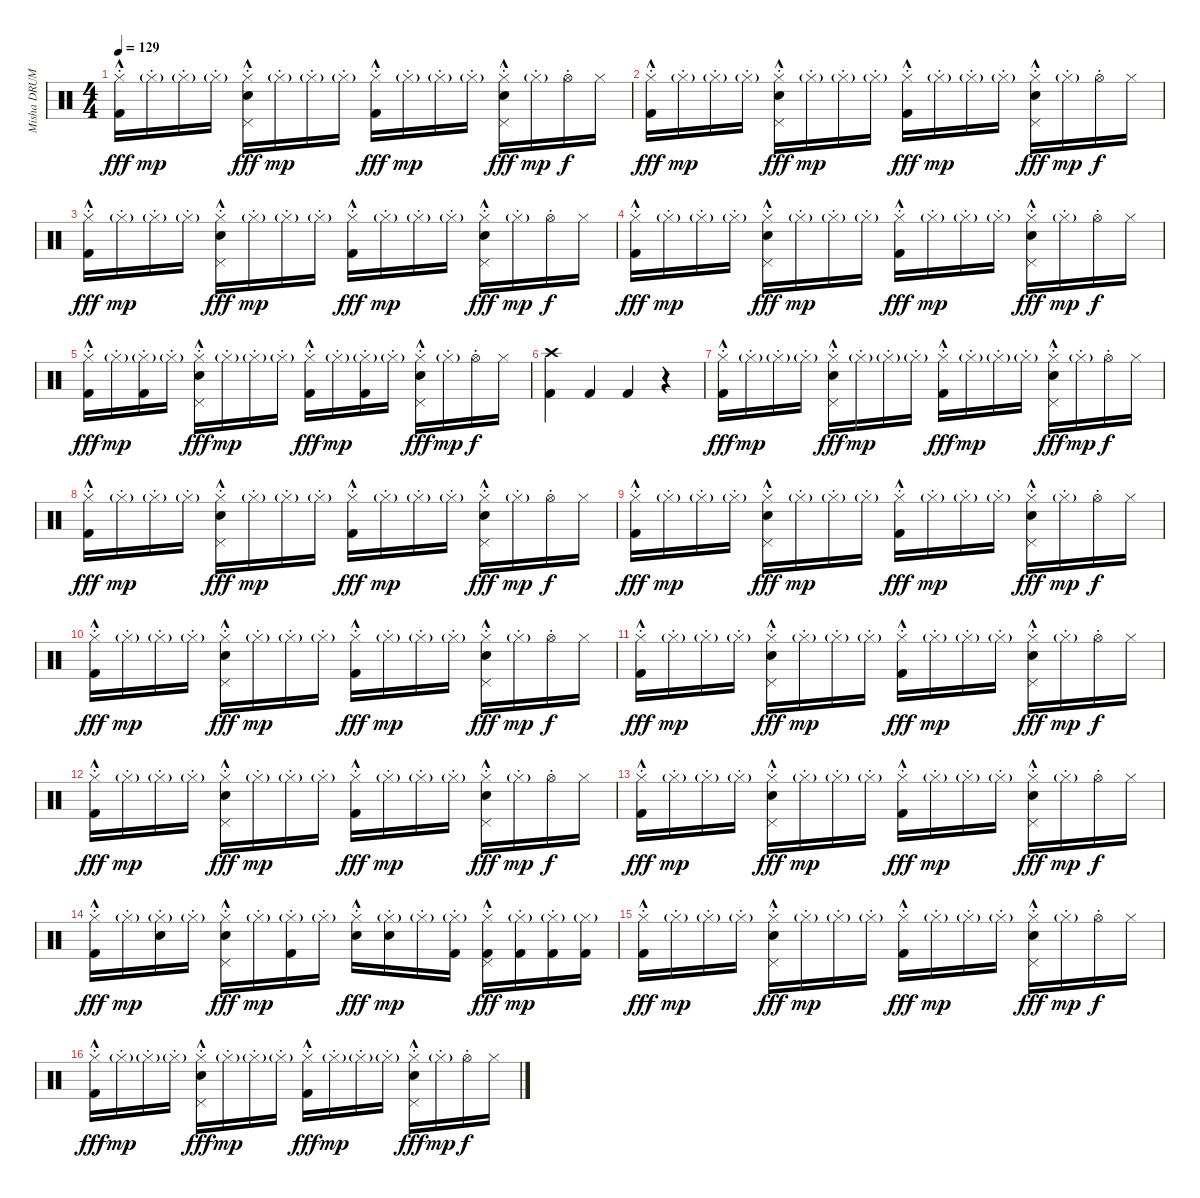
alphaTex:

\track ("Misha DRUMS" "Misha DRUM") {instrument percussion}
\staff {score}
\articulation defaults
\ts (4 4)
\tempo 129
\clef neutral
\ks c
("Hi-Hat (closed)"{hac st} "Kick (hit) 2").16{dy fff} "Hi-Hat (closed)"{g st}.16{dy mp} "Hi-Hat (closed)"{g st}.16 "Hi-Hat (closed)"{g st}.16 ("Hi-Hat (closed)"{hac st} "Pedal Hi-Hat (hit)" "Snare (hit) 2").16{dy fff} "Hi-Hat (closed)"{g st}.16{dy mp} "Hi-Hat (closed)"{g st}.16 "Hi-Hat (closed)"{g st}.16 ("Hi-Hat (closed)"{hac st} "Kick (hit) 2").16{dy fff} "Hi-Hat (closed)"{g st}.16{dy mp} "Hi-Hat (closed)"{g st}.16 "Hi-Hat (closed)"{g st}.16 ("Hi-Hat (closed)"{hac st} "Pedal Hi-Hat (hit)" "Snare (hit) 2").16{dy fff} "Hi-Hat (closed)"{g st}.16{dy mp} "Hi-Hat (open)"{st}.16{dy f} "Hi-Hat (closed)".16 |
("Hi-Hat (closed)"{hac st} "Kick (hit) 2").16{dy fff} "Hi-Hat (closed)"{g st}.16{dy mp} "Hi-Hat (closed)"{g st}.16 "Hi-Hat (closed)"{g st}.16 ("Hi-Hat (closed)"{hac st} "Pedal Hi-Hat (hit)" "Snare (hit) 2").16{dy fff} "Hi-Hat (closed)"{g st}.16{dy mp} "Hi-Hat (closed)"{g st}.16 "Hi-Hat (closed)"{g st}.16 ("Hi-Hat (closed)"{hac st} "Kick (hit) 2").16{dy fff} "Hi-Hat (closed)"{g st}.16{dy mp} "Hi-Hat (closed)"{g st}.16 "Hi-Hat (closed)"{g st}.16 ("Hi-Hat (closed)"{hac st} "Pedal Hi-Hat (hit)" "Snare (hit) 2").16{dy fff} "Hi-Hat (closed)"{g st}.16{dy mp} "Hi-Hat (open)"{st}.16{dy f} "Hi-Hat (closed)".16 |
("Hi-Hat (closed)"{hac st} "Kick (hit) 2").16{dy fff} "Hi-Hat (closed)"{g st}.16{dy mp} "Hi-Hat (closed)"{g st}.16 "Hi-Hat (closed)"{g st}.16 ("Hi-Hat (closed)"{hac st} "Pedal Hi-Hat (hit)" "Snare (hit) 2").16{dy fff} "Hi-Hat (closed)"{g st}.16{dy mp} "Hi-Hat (closed)"{g st}.16 "Hi-Hat (closed)"{g st}.16 ("Hi-Hat (closed)"{hac st} "Kick (hit) 2").16{dy fff} "Hi-Hat (closed)"{g st}.16{dy mp} "Hi-Hat (closed)"{g st}.16 "Hi-Hat (closed)"{g st}.16 ("Hi-Hat (closed)"{hac st} "Pedal Hi-Hat (hit)" "Snare (hit) 2").16{dy fff} "Hi-Hat (closed)"{g st}.16{dy mp} "Hi-Hat (open)"{st}.16{dy f} "Hi-Hat (closed)".16 |
("Hi-Hat (closed)"{hac st} "Kick (hit) 2").16{dy fff} "Hi-Hat (closed)"{g st}.16{dy mp} "Hi-Hat (closed)"{g st}.16 "Hi-Hat (closed)"{g st}.16 ("Hi-Hat (closed)"{hac st} "Pedal Hi-Hat (hit)" "Snare (hit) 2").16{dy fff} "Hi-Hat (closed)"{g st}.16{dy mp} "Hi-Hat (closed)"{g st}.16 "Hi-Hat (closed)"{g st}.16 ("Hi-Hat (closed)"{hac st} "Kick (hit) 2").16{dy fff} "Hi-Hat (closed)"{g st}.16{dy mp} "Hi-Hat (closed)"{g st}.16 "Hi-Hat (closed)"{g st}.16 ("Hi-Hat (closed)"{hac st} "Pedal Hi-Hat (hit)" "Snare (hit) 2").16{dy fff} "Hi-Hat (closed)"{g st}.16{dy mp} "Hi-Hat (open)"{st}.16{dy f} "Hi-Hat (closed)".16 |
("Hi-Hat (closed)"{hac st} "Kick (hit) 2").16{dy fff} "Hi-Hat (closed)"{g st}.16{dy mp} ("Hi-Hat (closed)"{g st} "Kick (hit) 2").16 "Hi-Hat (closed)"{g st}.16 ("Hi-Hat (closed)"{hac st} "Pedal Hi-Hat (hit)" "Snare (hit) 2").16{dy fff} "Hi-Hat (closed)"{g st}.16{dy mp} "Hi-Hat (closed)"{g st}.16 "Hi-Hat (closed)"{g st}.16 ("Hi-Hat (closed)"{hac st} "Kick (hit) 2").16{dy fff} "Hi-Hat (closed)"{g st}.16{dy mp} ("Hi-Hat (closed)"{g st} "Kick (hit) 2").16 "Hi-Hat (closed)"{g st}.16 ("Hi-Hat (closed)"{hac st} "Pedal Hi-Hat (hit)" "Snare (hit) 2").16{dy fff} "Hi-Hat (closed)"{g st}.16{dy mp} "Hi-Hat (open)"{st}.16{dy f} "Hi-Hat (closed)".16 |
("Crash high (hit)" "Kick (hit) 2").4 "Kick (hit) 2".4 "Kick (hit) 2".4 r.4 |
("Hi-Hat (closed)"{hac st} "Kick (hit) 2").16{dy fff} "Hi-Hat (closed)"{g st}.16{dy mp} "Hi-Hat (closed)"{g st}.16 "Hi-Hat (closed)"{g st}.16 ("Hi-Hat (closed)"{hac st} "Pedal Hi-Hat (hit)" "Snare (hit) 2").16{dy fff} "Hi-Hat (closed)"{g st}.16{dy mp} "Hi-Hat (closed)"{g st}.16 "Hi-Hat (closed)"{g st}.16 ("Hi-Hat (closed)"{hac st} "Kick (hit) 2").16{dy fff} "Hi-Hat (closed)"{g st}.16{dy mp} "Hi-Hat (closed)"{g st}.16 "Hi-Hat (closed)"{g st}.16 ("Hi-Hat (closed)"{hac st} "Pedal Hi-Hat (hit)" "Snare (hit) 2").16{dy fff} "Hi-Hat (closed)"{g st}.16{dy mp} "Hi-Hat (open)"{st}.16{dy f} "Hi-Hat (closed)".16 |
("Hi-Hat (closed)"{hac st} "Kick (hit) 2").16{dy fff} "Hi-Hat (closed)"{g st}.16{dy mp} "Hi-Hat (closed)"{g st}.16 "Hi-Hat (closed)"{g st}.16 ("Hi-Hat (closed)"{hac st} "Pedal Hi-Hat (hit)" "Snare (hit) 2").16{dy fff} "Hi-Hat (closed)"{g st}.16{dy mp} "Hi-Hat (closed)"{g st}.16 "Hi-Hat (closed)"{g st}.16 ("Hi-Hat (closed)"{hac st} "Kick (hit) 2").16{dy fff} "Hi-Hat (closed)"{g st}.16{dy mp} "Hi-Hat (closed)"{g st}.16 "Hi-Hat (closed)"{g st}.16 ("Hi-Hat (closed)"{hac st} "Pedal Hi-Hat (hit)" "Snare (hit) 2").16{dy fff} "Hi-Hat (closed)"{g st}.16{dy mp} "Hi-Hat (open)"{st}.16{dy f} "Hi-Hat (closed)".16 |
("Hi-Hat (closed)"{hac st} "Kick (hit) 2").16{dy fff} "Hi-Hat (closed)"{g st}.16{dy mp} "Hi-Hat (closed)"{g st}.16 "Hi-Hat (closed)"{g st}.16 ("Hi-Hat (closed)"{hac st} "Pedal Hi-Hat (hit)" "Snare (hit) 2").16{dy fff} "Hi-Hat (closed)"{g st}.16{dy mp} "Hi-Hat (closed)"{g st}.16 "Hi-Hat (closed)"{g st}.16 ("Hi-Hat (closed)"{hac st} "Kick (hit) 2").16{dy fff} "Hi-Hat (closed)"{g st}.16{dy mp} "Hi-Hat (closed)"{g st}.16 "Hi-Hat (closed)"{g st}.16 ("Hi-Hat (closed)"{hac st} "Pedal Hi-Hat (hit)" "Snare (hit) 2").16{dy fff} "Hi-Hat (closed)"{g st}.16{dy mp} "Hi-Hat (open)"{st}.16{dy f} "Hi-Hat (closed)".16 |
("Hi-Hat (closed)"{hac st} "Kick (hit) 2").16{dy fff} "Hi-Hat (closed)"{g st}.16{dy mp} "Hi-Hat (closed)"{g st}.16 "Hi-Hat (closed)"{g st}.16 ("Hi-Hat (closed)"{hac st} "Pedal Hi-Hat (hit)" "Snare (hit) 2").16{dy fff} "Hi-Hat (closed)"{g st}.16{dy mp} "Hi-Hat (closed)"{g st}.16 "Hi-Hat (closed)"{g st}.16 ("Hi-Hat (closed)"{hac st} "Kick (hit) 2").16{dy fff} "Hi-Hat (closed)"{g st}.16{dy mp} "Hi-Hat (closed)"{g st}.16 "Hi-Hat (closed)"{g st}.16 ("Hi-Hat (closed)"{hac st} "Pedal Hi-Hat (hit)" "Snare (hit) 2").16{dy fff} "Hi-Hat (closed)"{g st}.16{dy mp} "Hi-Hat (open)"{st}.16{dy f} "Hi-Hat (closed)".16 |
("Hi-Hat (closed)"{hac st} "Kick (hit) 2").16{dy fff} "Hi-Hat (closed)"{g st}.16{dy mp} "Hi-Hat (closed)"{g st}.16 "Hi-Hat (closed)"{g st}.16 ("Hi-Hat (closed)"{hac st} "Pedal Hi-Hat (hit)" "Snare (hit) 2").16{dy fff} "Hi-Hat (closed)"{g st}.16{dy mp} "Hi-Hat (closed)"{g st}.16 "Hi-Hat (closed)"{g st}.16 ("Hi-Hat (closed)"{hac st} "Kick (hit) 2").16{dy fff} "Hi-Hat (closed)"{g st}.16{dy mp} "Hi-Hat (closed)"{g st}.16 "Hi-Hat (closed)"{g st}.16 ("Hi-Hat (closed)"{hac st} "Pedal Hi-Hat (hit)" "Snare (hit) 2").16{dy fff} "Hi-Hat (closed)"{g st}.16{dy mp} "Hi-Hat (open)"{st}.16{dy f} "Hi-Hat (closed)".16 |
("Hi-Hat (closed)"{hac st} "Kick (hit) 2").16{dy fff} "Hi-Hat (closed)"{g st}.16{dy mp} "Hi-Hat (closed)"{g st}.16 "Hi-Hat (closed)"{g st}.16 ("Hi-Hat (closed)"{hac st} "Pedal Hi-Hat (hit)" "Snare (hit) 2").16{dy fff} "Hi-Hat (closed)"{g st}.16{dy mp} "Hi-Hat (closed)"{g st}.16 "Hi-Hat (closed)"{g st}.16 ("Hi-Hat (closed)"{hac st} "Kick (hit) 2").16{dy fff} "Hi-Hat (closed)"{g st}.16{dy mp} "Hi-Hat (closed)"{g st}.16 "Hi-Hat (closed)"{g st}.16 ("Hi-Hat (closed)"{hac st} "Pedal Hi-Hat (hit)" "Snare (hit) 2").16{dy fff} "Hi-Hat (closed)"{g st}.16{dy mp} "Hi-Hat (open)"{st}.16{dy f} "Hi-Hat (closed)".16 |
("Hi-Hat (closed)"{hac st} "Kick (hit) 2").16{dy fff} "Hi-Hat (closed)"{g st}.16{dy mp} "Hi-Hat (closed)"{g st}.16 "Hi-Hat (closed)"{g st}.16 ("Hi-Hat (closed)"{hac st} "Pedal Hi-Hat (hit)" "Snare (hit) 2").16{dy fff} "Hi-Hat (closed)"{g st}.16{dy mp} "Hi-Hat (closed)"{g st}.16 "Hi-Hat (closed)"{g st}.16 ("Hi-Hat (closed)"{hac st} "Kick (hit) 2").16{dy fff} "Hi-Hat (closed)"{g st}.16{dy mp} "Hi-Hat (closed)"{g st}.16 "Hi-Hat (closed)"{g st}.16 ("Hi-Hat (closed)"{hac st} "Pedal Hi-Hat (hit)" "Snare (hit) 2").16{dy fff} "Hi-Hat (closed)"{g st}.16{dy mp} "Hi-Hat (open)"{st}.16{dy f} "Hi-Hat (closed)".16 |
("Hi-Hat (closed)"{hac st} "Kick (hit) 2").16{dy fff} "Hi-Hat (closed)"{g st}.16{dy mp} ("Hi-Hat (closed)"{g st} "Snare (hit) 2").16 "Hi-Hat (closed)"{g st}.16 ("Hi-Hat (closed)"{hac st} "Pedal Hi-Hat (hit)" "Snare (hit) 2").16{dy fff} "Hi-Hat (closed)"{g st}.16{dy mp} ("Hi-Hat (closed)"{g st} "Kick (hit) 2").16 "Hi-Hat (closed)"{g st}.16 ("Hi-Hat (closed)"{hac st} "Snare (hit) 2").16{dy fff} ("Hi-Hat (closed)"{g st} "Snare (hit) 2").16{dy mp} "Hi-Hat (closed)"{g st}.16 ("Hi-Hat (closed)"{g st} "Kick (hit) 2").16 ("Hi-Hat (closed)"{hac st} "Pedal Hi-Hat (hit)" "Kick (hit) 2").16{dy fff} ("Hi-Hat (closed)"{g st} "Kick (hit) 2").16{dy mp} ("Hi-Hat (closed)"{g st} "Kick (hit) 2").16 ("Hi-Hat (closed)"{g} "Kick (hit) 2").16 |
("Hi-Hat (closed)"{hac st} "Kick (hit) 2").16{dy fff} "Hi-Hat (closed)"{g st}.16{dy mp} "Hi-Hat (closed)"{g st}.16 "Hi-Hat (closed)"{g st}.16 ("Hi-Hat (closed)"{hac st} "Pedal Hi-Hat (hit)" "Snare (hit) 2").16{dy fff} "Hi-Hat (closed)"{g st}.16{dy mp} "Hi-Hat (closed)"{g st}.16 "Hi-Hat (closed)"{g st}.16 ("Hi-Hat (closed)"{hac st} "Kick (hit) 2").16{dy fff} "Hi-Hat (closed)"{g st}.16{dy mp} "Hi-Hat (closed)"{g st}.16 "Hi-Hat (closed)"{g st}.16 ("Hi-Hat (closed)"{hac st} "Pedal Hi-Hat (hit)" "Snare (hit) 2").16{dy fff} "Hi-Hat (closed)"{g st}.16{dy mp} "Hi-Hat (open)"{st}.16{dy f} "Hi-Hat (closed)".16 |
("Hi-Hat (closed)"{hac st} "Kick (hit) 2").16{dy fff} "Hi-Hat (closed)"{g st}.16{dy mp} "Hi-Hat (closed)"{g st}.16 "Hi-Hat (closed)"{g st}.16 ("Hi-Hat (closed)"{hac st} "Pedal Hi-Hat (hit)" "Snare (hit) 2").16{dy fff} "Hi-Hat (closed)"{g st}.16{dy mp} "Hi-Hat (closed)"{g st}.16 "Hi-Hat (closed)"{g st}.16 ("Hi-Hat (closed)"{hac st} "Kick (hit) 2").16{dy fff} "Hi-Hat (closed)"{g st}.16{dy mp} "Hi-Hat (closed)"{g st}.16 "Hi-Hat (closed)"{g st}.16 ("Hi-Hat (closed)"{hac st} "Pedal Hi-Hat (hit)" "Snare (hit) 2").16{dy fff} "Hi-Hat (closed)"{g st}.16{dy mp} "Hi-Hat (open)"{st}.16{dy f} "Hi-Hat (closed)".16
